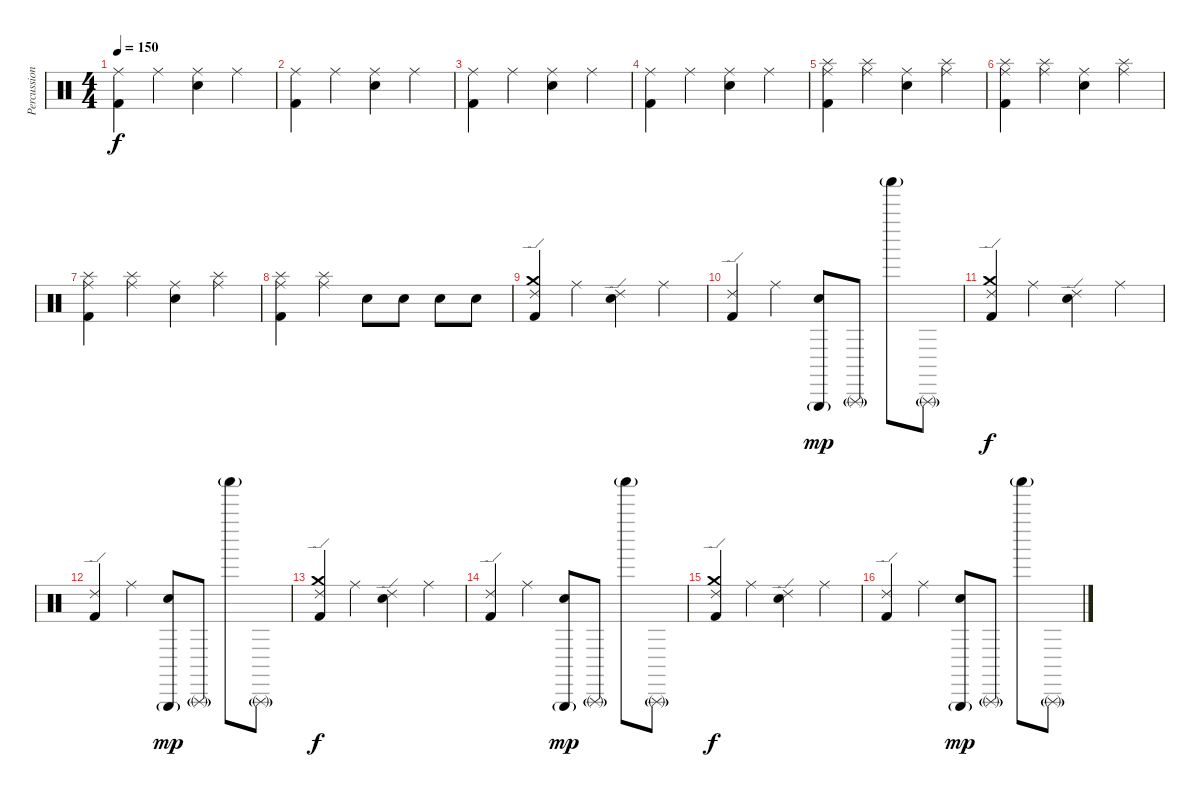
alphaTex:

\track ("Percussion" "Percussion") {instrument percussion}
\staff {score}
\articulation defaults
\ts (4 4)
\tempo 150
\clef neutral
\ks c
("Ride (middle)" "Kick (hit) 2").4{dy f} "Ride (middle)".4 ("Ride (middle)" "Snare (hit) 2").4 "Ride (middle)".4 |
("Ride (middle)" "Kick (hit) 2").4 "Ride (middle)".4 ("Ride (middle)" "Snare (hit) 2").4 "Ride (middle)".4 |
("Ride (middle)" "Kick (hit) 2").4 "Ride (middle)".4 ("Ride (middle)" "Snare (hit) 2").4 "Ride (middle)".4 |
("Ride (middle)" "Kick (hit) 2").4 "Ride (middle)".4 ("Ride (middle)" "Snare (hit) 2").4 "Ride (middle)".4 |
("Ride (middle)" "Splash (hit)" "Kick (hit) 2").4 ("Ride (middle)" "Splash (hit)").4 ("Ride (middle)" "Snare (hit) 2").4 ("Ride (middle)" "Splash (hit)").4 |
("Ride (middle)" "Splash (hit)" "Kick (hit) 2").4 ("Ride (middle)" "Splash (hit)").4 ("Ride (middle)" "Snare (hit) 2").4 ("Ride (middle)" "Splash (hit)").4 |
("Ride (middle)" "Splash (hit)" "Kick (hit) 2").4 ("Ride (middle)" "Splash (hit)").4 ("Ride (middle)" "Snare (hit) 2").4 ("Ride (middle)" "Splash (hit)").4 |
("Ride (middle)" "Splash (hit)" "Kick (hit) 2").4 ("Ride (middle)" "Splash (hit)").4 "Snare (hit) 2".8 "Snare (hit) 2".8 "Snare (hit) 2".8 "Snare (hit) 2".8 |
("Crash medium (hit)" "Ride (edge) 2" "Kick (hit) 2").4 "Ride (middle)".4 ("Ride (edge) 2" "Snare (hit) 2").4 "Ride (middle)".4 |
("Ride (edge) 2" "Kick (hit) 2").4 "Ride (middle)".4 ("Triangle (hit)"{g} "Snare (hit) 2").8{dy mp} "Triangle (rnute)"{g}.8 "Shaker (hit)"{g}.8 "Triangle (rnute)"{g}.8 |
("Crash medium (hit)" "Ride (edge) 2" "Kick (hit) 2").4{dy f} "Ride (middle)".4 ("Ride (edge) 2" "Snare (hit) 2").4 "Ride (middle)".4 |
("Ride (edge) 2" "Kick (hit) 2").4 "Ride (middle)".4 ("Triangle (hit)"{g} "Snare (hit) 2").8{dy mp} "Triangle (rnute)"{g}.8 "Shaker (hit)"{g}.8 "Triangle (rnute)"{g}.8 |
("Crash medium (hit)" "Ride (edge) 2" "Kick (hit) 2").4{dy f} "Ride (middle)".4 ("Ride (edge) 2" "Snare (hit) 2").4 "Ride (middle)".4 |
("Ride (edge) 2" "Kick (hit) 2").4 "Ride (middle)".4 ("Triangle (hit)"{g} "Snare (hit) 2").8{dy mp} "Triangle (rnute)"{g}.8 "Shaker (hit)"{g}.8 "Triangle (rnute)"{g}.8 |
("Crash medium (hit)" "Ride (edge) 2" "Kick (hit) 2").4{dy f} "Ride (middle)".4 ("Ride (edge) 2" "Snare (hit) 2").4 "Ride (middle)".4 |
("Ride (edge) 2" "Kick (hit) 2").4 "Ride (middle)".4 ("Triangle (hit)"{g} "Snare (hit) 2").8{dy mp} "Triangle (rnute)"{g}.8 "Shaker (hit)"{g}.8 "Triangle (rnute)"{g}.8
